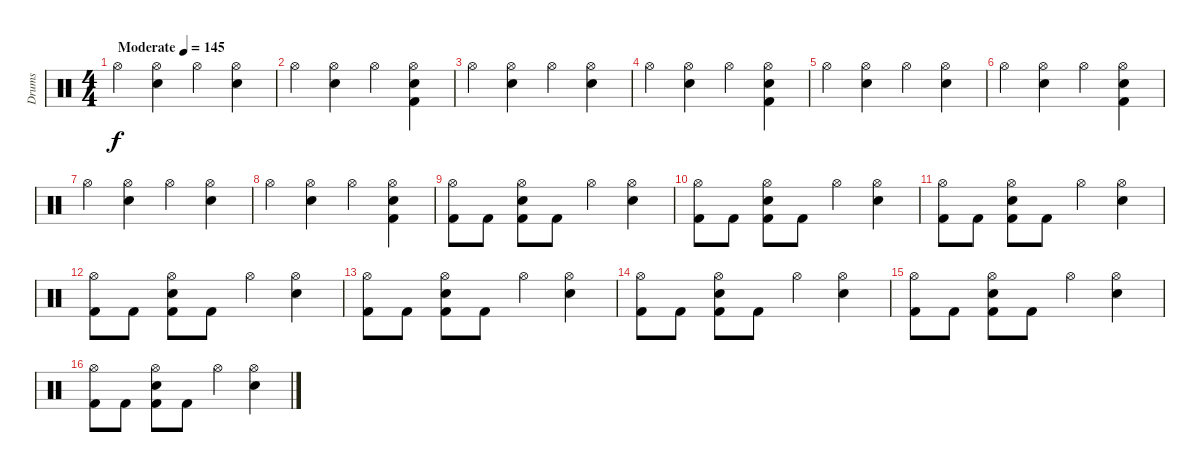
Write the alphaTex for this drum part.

\track ("Drums" "Drums") {instrument percussion}
\staff {score}
\articulation defaults
\ts (4 4)
\tempo (145 "Moderate")
\clef neutral
\ks c "Hi-Hat (open)".4{dy f}
("Hi-Hat (open)" "Snare (hit) 2").4 "Hi-Hat (open)".4 ("Hi-Hat (open)" "Snare (hit) 2").4 |
"Hi-Hat (open)".4 ("Hi-Hat (open)" "Snare (hit) 2").4 "Hi-Hat (open)".4 ("Hi-Hat (open)" "Snare (hit) 2" "Kick (hit) 2").4 |
"Hi-Hat (open)".4 ("Hi-Hat (open)" "Snare (hit) 2").4 "Hi-Hat (open)".4 ("Hi-Hat (open)" "Snare (hit) 2").4 |
"Hi-Hat (open)".4 ("Hi-Hat (open)" "Snare (hit) 2").4 "Hi-Hat (open)".4 ("Hi-Hat (open)" "Snare (hit) 2" "Kick (hit) 2").4 |
"Hi-Hat (open)".4 ("Hi-Hat (open)" "Snare (hit) 2").4 "Hi-Hat (open)".4 ("Hi-Hat (open)" "Snare (hit) 2").4 |
"Hi-Hat (open)".4 ("Hi-Hat (open)" "Snare (hit) 2").4 "Hi-Hat (open)".4 ("Hi-Hat (open)" "Snare (hit) 2" "Kick (hit) 2").4 |
"Hi-Hat (open)".4 ("Hi-Hat (open)" "Snare (hit) 2").4 "Hi-Hat (open)".4 ("Hi-Hat (open)" "Snare (hit) 2").4 |
"Hi-Hat (open)".4 ("Hi-Hat (open)" "Snare (hit) 2").4 "Hi-Hat (open)".4 ("Hi-Hat (open)" "Snare (hit) 2" "Kick (hit) 2").4 |
("Hi-Hat (open)" "Kick (hit) 2").8 "Kick (hit) 2".8 ("Hi-Hat (open)" "Snare (hit) 2" "Kick (hit) 2").8 "Kick (hit) 2".8 "Hi-Hat (open)".4 ("Hi-Hat (open)" "Snare (hit) 2").4 |
("Hi-Hat (open)" "Kick (hit) 2").8 "Kick (hit) 2".8 ("Hi-Hat (open)" "Snare (hit) 2" "Kick (hit) 2").8 "Kick (hit) 2".8 "Hi-Hat (open)".4 ("Hi-Hat (open)" "Snare (hit) 2").4 |
("Hi-Hat (open)" "Kick (hit) 2").8 "Kick (hit) 2".8 ("Hi-Hat (open)" "Snare (hit) 2" "Kick (hit) 2").8 "Kick (hit) 2".8 "Hi-Hat (open)".4 ("Hi-Hat (open)" "Snare (hit) 2").4 |
("Hi-Hat (open)" "Kick (hit) 2").8 "Kick (hit) 2".8 ("Hi-Hat (open)" "Snare (hit) 2" "Kick (hit) 2").8 "Kick (hit) 2".8 "Hi-Hat (open)".4 ("Hi-Hat (open)" "Snare (hit) 2").4 |
("Hi-Hat (open)" "Kick (hit) 2").8 "Kick (hit) 2".8 ("Hi-Hat (open)" "Snare (hit) 2" "Kick (hit) 2").8 "Kick (hit) 2".8 "Hi-Hat (open)".4 ("Hi-Hat (open)" "Snare (hit) 2").4 |
("Hi-Hat (open)" "Kick (hit) 2").8 "Kick (hit) 2".8 ("Hi-Hat (open)" "Snare (hit) 2" "Kick (hit) 2").8 "Kick (hit) 2".8 "Hi-Hat (open)".4 ("Hi-Hat (open)" "Snare (hit) 2").4 |
("Hi-Hat (open)" "Kick (hit) 2").8 "Kick (hit) 2".8 ("Hi-Hat (open)" "Snare (hit) 2" "Kick (hit) 2").8 "Kick (hit) 2".8 "Hi-Hat (open)".4 ("Hi-Hat (open)" "Snare (hit) 2").4 |
("Hi-Hat (open)" "Kick (hit) 2").8 "Kick (hit) 2".8 ("Hi-Hat (open)" "Snare (hit) 2" "Kick (hit) 2").8 "Kick (hit) 2".8 "Hi-Hat (open)".4 ("Hi-Hat (open)" "Snare (hit) 2").4
